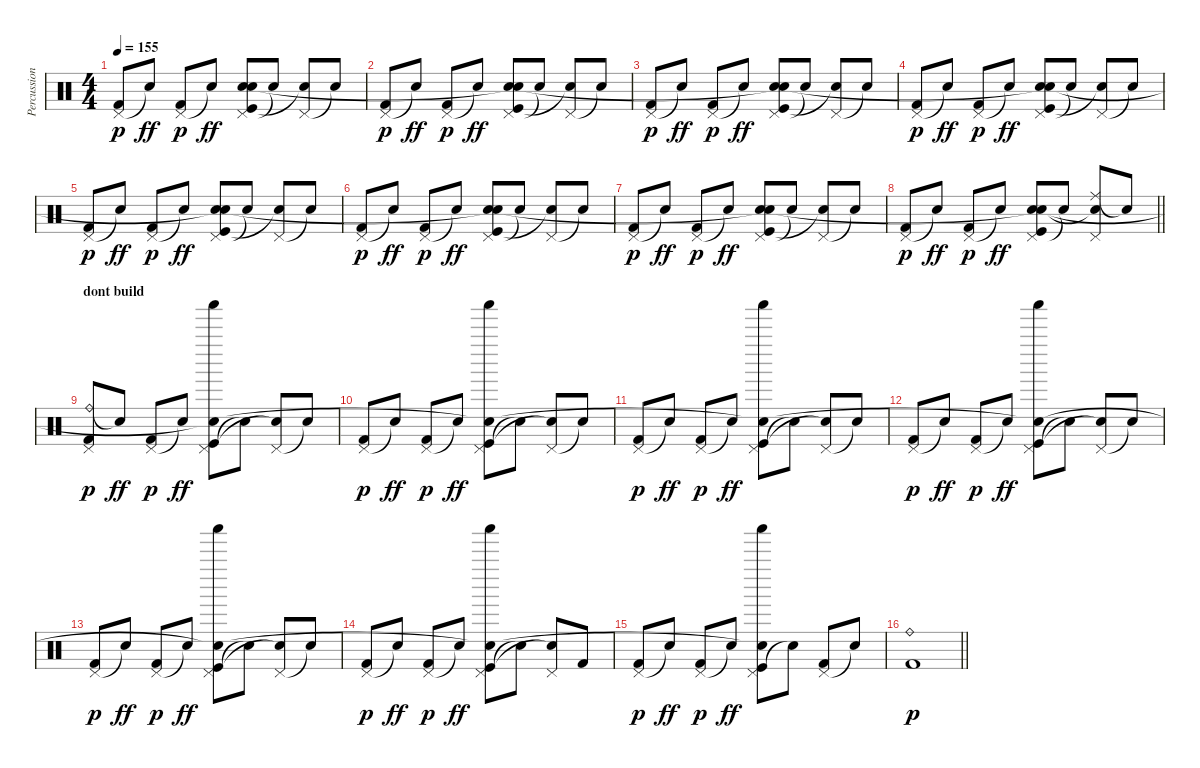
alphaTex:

\track ("Percussion" "Percussion") {instrument percussion}
\staff {score}
\articulation defaults
\ts (4 4)
\tempo 155
\clef neutral
\ks c
("Pedal Hi-Hat (hit)" "Kick (hit) 2").8{dy p} "Snare (hit)"{t}.8{dy ff} ("Pedal Hi-Hat (hit)" "Kick (hit) 2").8{dy p} "Snare (hit)"{t}.8{dy ff} ("Pedal Hi-Hat (hit)" "Kick (hit)" "Snare (hit) 2" "Snare (hit)"{t}).8 "Snare (hit)"{t}.8 ("Pedal Hi-Hat (hit)" "Snare (hit)"{t}).8 "Snare (hit)"{t}.8 |
("Pedal Hi-Hat (hit)" "Kick (hit) 2").8{dy p} "Snare (hit)"{t}.8{dy ff} ("Pedal Hi-Hat (hit)" "Kick (hit) 2").8{dy p} "Snare (hit)"{t}.8{dy ff} ("Pedal Hi-Hat (hit)" "Kick (hit)" "Snare (hit) 2" "Snare (hit)"{t}).8 "Snare (hit)"{t}.8 ("Pedal Hi-Hat (hit)" "Snare (hit)"{t}).8 "Snare (hit)"{t}.8 |
("Pedal Hi-Hat (hit)" "Kick (hit) 2").8{dy p} "Snare (hit)"{t}.8{dy ff} ("Pedal Hi-Hat (hit)" "Kick (hit) 2").8{dy p} "Snare (hit)"{t}.8{dy ff} ("Pedal Hi-Hat (hit)" "Kick (hit)" "Snare (hit) 2" "Snare (hit)"{t}).8 "Snare (hit)"{t}.8 ("Pedal Hi-Hat (hit)" "Snare (hit)"{t}).8 "Snare (hit)"{t}.8 |
("Pedal Hi-Hat (hit)" "Kick (hit) 2").8{dy p} "Snare (hit)"{t}.8{dy ff} ("Pedal Hi-Hat (hit)" "Kick (hit) 2").8{dy p} "Snare (hit)"{t}.8{dy ff} ("Pedal Hi-Hat (hit)" "Kick (hit)" "Snare (hit) 2" "Snare (hit)"{t}).8 "Snare (hit)"{t}.8 ("Pedal Hi-Hat (hit)" "Snare (hit)"{t}).8 "Snare (hit)"{t}.8 |
("Pedal Hi-Hat (hit)" "Kick (hit) 2").8{dy p} "Snare (hit)"{t}.8{dy ff} ("Pedal Hi-Hat (hit)" "Kick (hit) 2").8{dy p} "Snare (hit)"{t}.8{dy ff} ("Pedal Hi-Hat (hit)" "Kick (hit)" "Snare (hit) 2" "Snare (hit)"{t}).8 "Snare (hit)"{t}.8 ("Pedal Hi-Hat (hit)" "Snare (hit)"{t}).8 "Snare (hit)"{t}.8 |
("Pedal Hi-Hat (hit)" "Kick (hit) 2").8{dy p} "Snare (hit)"{t}.8{dy ff} ("Pedal Hi-Hat (hit)" "Kick (hit) 2").8{dy p} "Snare (hit)"{t}.8{dy ff} ("Pedal Hi-Hat (hit)" "Kick (hit)" "Snare (hit) 2" "Snare (hit)"{t}).8 "Snare (hit)"{t}.8 ("Pedal Hi-Hat (hit)" "Snare (hit)"{t}).8 "Snare (hit)"{t}.8 |
("Pedal Hi-Hat (hit)" "Kick (hit) 2").8{dy p} "Snare (hit)"{t}.8{dy ff} ("Pedal Hi-Hat (hit)" "Kick (hit) 2").8{dy p} "Snare (hit)"{t}.8{dy ff} ("Pedal Hi-Hat (hit)" "Kick (hit)" "Snare (hit) 2" "Snare (hit)"{t}).8 "Snare (hit)"{t}.8 ("Pedal Hi-Hat (hit)" "Snare (hit)"{t}).8 "Snare (hit)"{t}.8 |
\barLineRight lightlight
("Pedal Hi-Hat (hit)" "Kick (hit) 2").8{dy p} "Snare (hit)"{t}.8{dy ff} ("Pedal Hi-Hat (hit)" "Kick (hit) 2").8{dy p} "Snare (hit)"{t}.8{dy ff} ("Pedal Hi-Hat (hit)" "Kick (hit)" "Snare (hit) 2" "Snare (hit)"{t}).8 "Snare (hit)"{t}.8 ("Ride (middle)" "Pedal Hi-Hat (hit)" "Snare (hit)"{t}).8 "Snare (hit)"{t}.8 |
\section ("" "dont build")
("Ride (bell)" "Pedal Hi-Hat (hit)" "Kick (hit) 2").8{dy p} "Snare (hit)"{t}.8{dy ff} ("Pedal Hi-Hat (hit)" "Kick (hit) 2").8{dy p} "Snare (hit)"{t}.8{dy ff} ("Pedal Hi-Hat (hit)" "Kick (hit)" "Shaker (hit)" "Snare (hit)"{t}).8 "Snare (hit)"{t}.8 ("Pedal Hi-Hat (hit)" "Snare (hit)"{t}).8 "Snare (hit)"{t}.8 |
("Pedal Hi-Hat (hit)" "Kick (hit) 2").8{dy p} "Snare (hit)"{t}.8{dy ff} ("Pedal Hi-Hat (hit)" "Kick (hit) 2").8{dy p} "Snare (hit)"{t}.8{dy ff} ("Pedal Hi-Hat (hit)" "Kick (hit)" "Shaker (hit)" "Snare (hit)"{t}).8 "Snare (hit)"{t}.8 ("Pedal Hi-Hat (hit)" "Snare (hit)"{t}).8 "Snare (hit)"{t}.8 |
("Pedal Hi-Hat (hit)" "Kick (hit) 2").8{dy p} "Snare (hit)"{t}.8{dy ff} ("Pedal Hi-Hat (hit)" "Kick (hit) 2").8{dy p} "Snare (hit)"{t}.8{dy ff} ("Pedal Hi-Hat (hit)" "Kick (hit)" "Shaker (hit)" "Snare (hit)"{t}).8 "Snare (hit)"{t}.8 ("Pedal Hi-Hat (hit)" "Snare (hit)"{t}).8 "Snare (hit)"{t}.8 |
("Pedal Hi-Hat (hit)" "Kick (hit) 2").8{dy p} "Snare (hit)"{t}.8{dy ff} ("Pedal Hi-Hat (hit)" "Kick (hit) 2").8{dy p} "Snare (hit)"{t}.8{dy ff} ("Pedal Hi-Hat (hit)" "Kick (hit)" "Shaker (hit)" "Snare (hit)"{t}).8 "Snare (hit)"{t}.8 ("Pedal Hi-Hat (hit)" "Snare (hit)"{t}).8 "Snare (hit)"{t}.8 |
("Pedal Hi-Hat (hit)" "Kick (hit) 2").8{dy p} "Snare (hit)"{t}.8{dy ff} ("Pedal Hi-Hat (hit)" "Kick (hit) 2").8{dy p} "Snare (hit)"{t}.8{dy ff} ("Pedal Hi-Hat (hit)" "Kick (hit)" "Shaker (hit)" "Snare (hit)"{t}).8 "Snare (hit)"{t}.8 ("Pedal Hi-Hat (hit)" "Snare (hit)"{t}).8 "Snare (hit)"{t}.8 |
("Pedal Hi-Hat (hit)" "Kick (hit) 2").8{dy p} "Snare (hit)"{t}.8{dy ff} ("Pedal Hi-Hat (hit)" "Kick (hit) 2").8{dy p} "Snare (hit)"{t}.8{dy ff} ("Pedal Hi-Hat (hit)" "Kick (hit)" "Shaker (hit)" "Snare (hit)"{t}).8 "Snare (hit)"{t}.8 ("Pedal Hi-Hat (hit)" "Snare (hit)"{t}).8 "Kick (hit) 2".8 |
("Pedal Hi-Hat (hit)" "Kick (hit) 2").8{dy p} "Snare (hit)"{t}.8{dy ff} ("Pedal Hi-Hat (hit)" "Kick (hit) 2").8{dy p} "Snare (hit)"{t}.8{dy ff} ("Pedal Hi-Hat (hit)" "Kick (hit)" "Shaker (hit)" "Snare (hit)"{t}).8 "Snare (hit)"{t}.8 ("Pedal Hi-Hat (hit)" "Kick (hit) 2").8 "Snare (hit)"{t}.8 |
\barLineRight lightlight
("Ride (bell)" "Kick (hit) 2").1{dy p}
